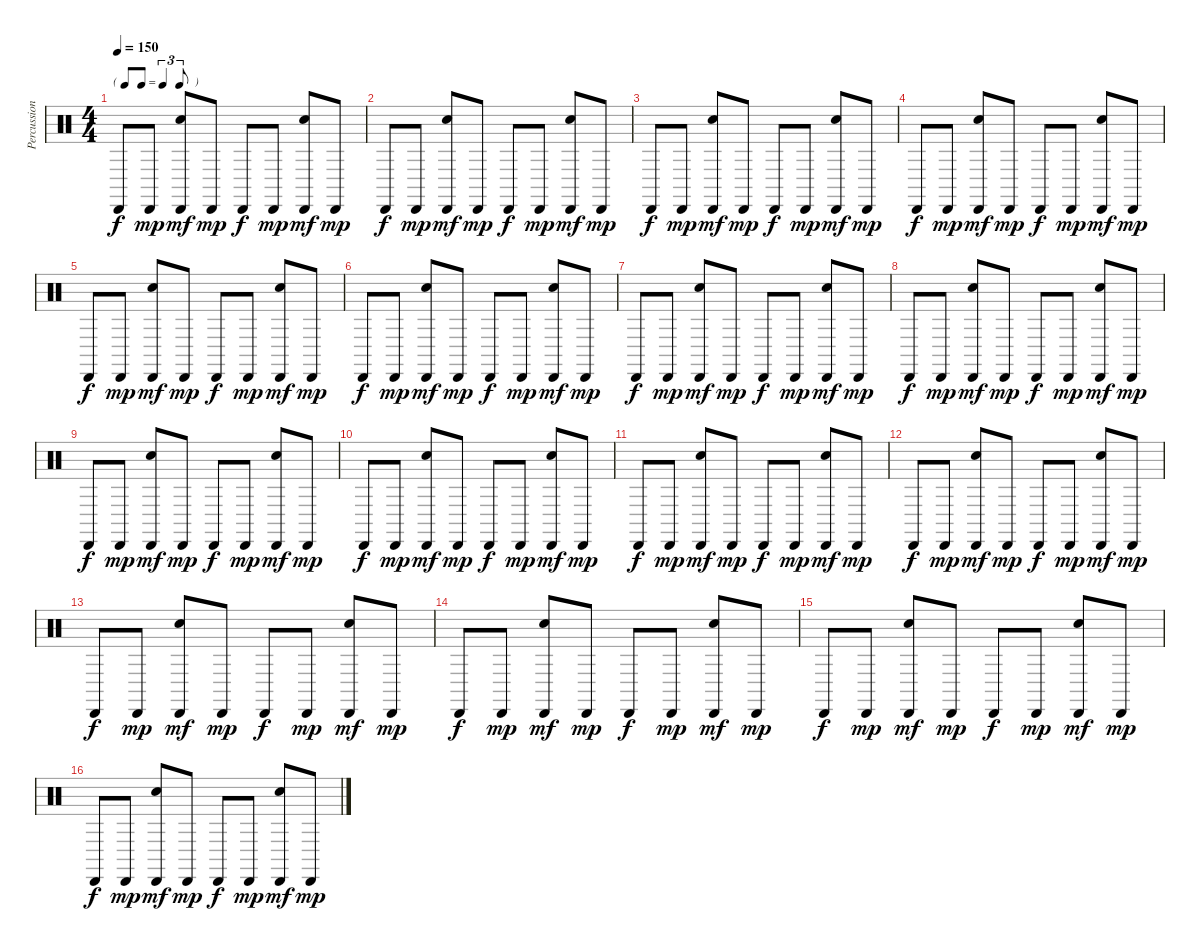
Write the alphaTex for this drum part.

\track ("Percussion" "Percussion") {instrument percussion}
\staff {score}
\articulation defaults
\ts (4 4)
\tf triplet8th
\tempo 150
\clef neutral
\ks c "Cabasa (hit)".8{dy f} "Cabasa (hit)".8{dy mp}
("Cabasa (hit)" "Hand Clap (hit)").8{dy mf} "Cabasa (hit)".8{dy mp} "Cabasa (hit)".8{dy f} "Cabasa (hit)".8{dy mp} ("Cabasa (hit)" "Hand Clap (hit)").8{dy mf} "Cabasa (hit)".8{dy mp} |
"Cabasa (hit)".8{dy f} "Cabasa (hit)".8{dy mp} ("Cabasa (hit)" "Hand Clap (hit)").8{dy mf} "Cabasa (hit)".8{dy mp} "Cabasa (hit)".8{dy f} "Cabasa (hit)".8{dy mp} ("Cabasa (hit)" "Hand Clap (hit)").8{dy mf} "Cabasa (hit)".8{dy mp} |
"Cabasa (hit)".8{dy f} "Cabasa (hit)".8{dy mp} ("Cabasa (hit)" "Hand Clap (hit)").8{dy mf} "Cabasa (hit)".8{dy mp} "Cabasa (hit)".8{dy f} "Cabasa (hit)".8{dy mp} ("Cabasa (hit)" "Hand Clap (hit)").8{dy mf} "Cabasa (hit)".8{dy mp} |
"Cabasa (hit)".8{dy f} "Cabasa (hit)".8{dy mp} ("Cabasa (hit)" "Hand Clap (hit)").8{dy mf} "Cabasa (hit)".8{dy mp} "Cabasa (hit)".8{dy f} "Cabasa (hit)".8{dy mp} ("Cabasa (hit)" "Hand Clap (hit)").8{dy mf} "Cabasa (hit)".8{dy mp} |
"Cabasa (hit)".8{dy f} "Cabasa (hit)".8{dy mp} ("Cabasa (hit)" "Hand Clap (hit)").8{dy mf} "Cabasa (hit)".8{dy mp} "Cabasa (hit)".8{dy f} "Cabasa (hit)".8{dy mp} ("Cabasa (hit)" "Hand Clap (hit)").8{dy mf} "Cabasa (hit)".8{dy mp} |
"Cabasa (hit)".8{dy f} "Cabasa (hit)".8{dy mp} ("Cabasa (hit)" "Hand Clap (hit)").8{dy mf} "Cabasa (hit)".8{dy mp} "Cabasa (hit)".8{dy f} "Cabasa (hit)".8{dy mp} ("Cabasa (hit)" "Hand Clap (hit)").8{dy mf} "Cabasa (hit)".8{dy mp} |
"Cabasa (hit)".8{dy f} "Cabasa (hit)".8{dy mp} ("Cabasa (hit)" "Hand Clap (hit)").8{dy mf} "Cabasa (hit)".8{dy mp} "Cabasa (hit)".8{dy f} "Cabasa (hit)".8{dy mp} ("Cabasa (hit)" "Hand Clap (hit)").8{dy mf} "Cabasa (hit)".8{dy mp} |
"Cabasa (hit)".8{dy f} "Cabasa (hit)".8{dy mp} ("Cabasa (hit)" "Hand Clap (hit)").8{dy mf} "Cabasa (hit)".8{dy mp} "Cabasa (hit)".8{dy f} "Cabasa (hit)".8{dy mp} ("Cabasa (hit)" "Hand Clap (hit)").8{dy mf} "Cabasa (hit)".8{dy mp} |
"Cabasa (hit)".8{dy f} "Cabasa (hit)".8{dy mp} ("Cabasa (hit)" "Hand Clap (hit)").8{dy mf} "Cabasa (hit)".8{dy mp} "Cabasa (hit)".8{dy f} "Cabasa (hit)".8{dy mp} ("Cabasa (hit)" "Hand Clap (hit)").8{dy mf} "Cabasa (hit)".8{dy mp} |
"Cabasa (hit)".8{dy f} "Cabasa (hit)".8{dy mp} ("Cabasa (hit)" "Hand Clap (hit)").8{dy mf} "Cabasa (hit)".8{dy mp} "Cabasa (hit)".8{dy f} "Cabasa (hit)".8{dy mp} ("Cabasa (hit)" "Hand Clap (hit)").8{dy mf} "Cabasa (hit)".8{dy mp} |
"Cabasa (hit)".8{dy f} "Cabasa (hit)".8{dy mp} ("Cabasa (hit)" "Hand Clap (hit)").8{dy mf} "Cabasa (hit)".8{dy mp} "Cabasa (hit)".8{dy f} "Cabasa (hit)".8{dy mp} ("Cabasa (hit)" "Hand Clap (hit)").8{dy mf} "Cabasa (hit)".8{dy mp} |
"Cabasa (hit)".8{dy f} "Cabasa (hit)".8{dy mp} ("Cabasa (hit)" "Hand Clap (hit)").8{dy mf} "Cabasa (hit)".8{dy mp} "Cabasa (hit)".8{dy f} "Cabasa (hit)".8{dy mp} ("Cabasa (hit)" "Hand Clap (hit)").8{dy mf} "Cabasa (hit)".8{dy mp} |
"Cabasa (hit)".8{dy f} "Cabasa (hit)".8{dy mp} ("Cabasa (hit)" "Hand Clap (hit)").8{dy mf} "Cabasa (hit)".8{dy mp} "Cabasa (hit)".8{dy f} "Cabasa (hit)".8{dy mp} ("Cabasa (hit)" "Hand Clap (hit)").8{dy mf} "Cabasa (hit)".8{dy mp} |
"Cabasa (hit)".8{dy f} "Cabasa (hit)".8{dy mp} ("Cabasa (hit)" "Hand Clap (hit)").8{dy mf} "Cabasa (hit)".8{dy mp} "Cabasa (hit)".8{dy f} "Cabasa (hit)".8{dy mp} ("Cabasa (hit)" "Hand Clap (hit)").8{dy mf} "Cabasa (hit)".8{dy mp} |
"Cabasa (hit)".8{dy f} "Cabasa (hit)".8{dy mp} ("Cabasa (hit)" "Hand Clap (hit)").8{dy mf} "Cabasa (hit)".8{dy mp} "Cabasa (hit)".8{dy f} "Cabasa (hit)".8{dy mp} ("Cabasa (hit)" "Hand Clap (hit)").8{dy mf} "Cabasa (hit)".8{dy mp} |
"Cabasa (hit)".8{dy f} "Cabasa (hit)".8{dy mp} ("Cabasa (hit)" "Hand Clap (hit)").8{dy mf} "Cabasa (hit)".8{dy mp} "Cabasa (hit)".8{dy f} "Cabasa (hit)".8{dy mp} ("Cabasa (hit)" "Hand Clap (hit)").8{dy mf} "Cabasa (hit)".8{dy mp}
